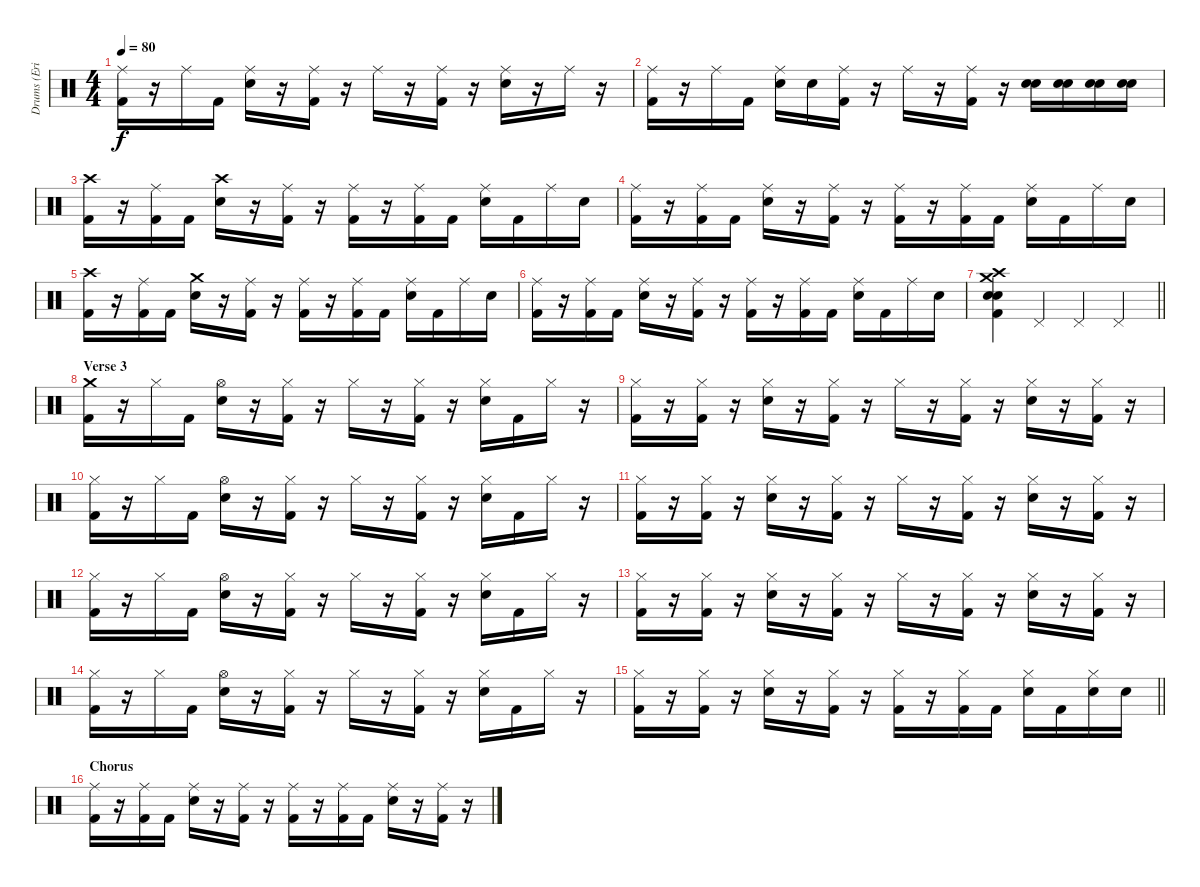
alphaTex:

\track ("Drums (Eric Kretz)" "Drums (Eri") {instrument percussion}
\staff {score}
\articulation defaults
\ts (4 4)
\tempo 80
\clef neutral
\ks c
("Ride (middle)" "Kick (hit) 2").16{dy f} r.16 "Ride (middle)".16 "Kick (hit) 2".16 ("Ride (middle)" "Electric Snare (hit)").16 r.16 ("Ride (middle)" "Kick (hit) 2").16 r.16 "Ride (middle)".16 r.16 ("Ride (middle)" "Kick (hit) 2").16 r.16 ("Ride (middle)" "Electric Snare (hit)").16 r.16 "Ride (middle)".16 r.16 |
("Ride (middle)" "Kick (hit) 2").16 r.16 "Ride (middle)".16 "Kick (hit) 2".16 ("Ride (middle)" "Electric Snare (hit)").16 "Electric Snare (hit)".16 ("Ride (middle)" "Kick (hit) 2").16 r.16 "Ride (middle)".16 r.16 ("Ride (middle)" "Kick (hit) 2").16 r.16 ("Snare (hit) 2" "Electric Snare (hit)").16 ("Snare (hit) 2" "Electric Snare (hit)").16 ("Snare (hit) 2" "Electric Snare (hit)").16 ("Snare (hit) 2" "Electric Snare (hit)").16 |
("Crash high (hit)" "Kick (hit) 2").16 r.16 ("Ride (middle)" "Kick (hit) 2").16 "Kick (hit) 2".16 ("Crash high (hit)" "Electric Snare (hit)").16 r.16 ("Ride (middle)" "Kick (hit) 2").16 r.16 ("Ride (middle)" "Kick (hit) 2").16 r.16 ("Ride (middle)" "Kick (hit) 2").16 "Kick (hit) 2".16 ("Ride (middle)" "Electric Snare (hit)").16 "Kick (hit) 2".16 "Ride (middle)".16 "Electric Snare (hit)".16 |
("Ride (middle)" "Kick (hit) 2").16 r.16 ("Ride (middle)" "Kick (hit) 2").16 "Kick (hit) 2".16 ("Ride (middle)" "Electric Snare (hit)").16 r.16 ("Ride (middle)" "Kick (hit) 2").16 r.16 ("Ride (middle)" "Kick (hit) 2").16 r.16 ("Ride (middle)" "Kick (hit) 2").16 "Kick (hit) 2".16 ("Ride (middle)" "Electric Snare (hit)").16 "Kick (hit) 2".16 "Ride (middle)".16 "Electric Snare (hit)".16 |
("Crash high (hit)" "Kick (hit) 2").16 r.16 ("Ride (middle)" "Kick (hit) 2").16 "Kick (hit) 2".16 ("Crash medium (hit)" "Electric Snare (hit)").16 r.16 ("Ride (middle)" "Kick (hit) 2").16 r.16 ("Ride (middle)" "Kick (hit) 2").16 r.16 ("Ride (middle)" "Kick (hit) 2").16 "Kick (hit) 2".16 ("Ride (middle)" "Electric Snare (hit)").16 "Kick (hit) 2".16 "Ride (middle)".16 "Electric Snare (hit)".16 |
("Ride (middle)" "Kick (hit) 2").16 r.16 ("Ride (middle)" "Kick (hit) 2").16 "Kick (hit) 2".16 ("Ride (middle)" "Electric Snare (hit)").16 r.16 ("Ride (middle)" "Kick (hit) 2").16 r.16 ("Ride (middle)" "Kick (hit) 2").16 r.16 ("Ride (middle)" "Kick (hit) 2").16 "Kick (hit) 2".16 ("Ride (middle)" "Electric Snare (hit)").16 "Kick (hit) 2".16 "Ride (middle)".16 "Electric Snare (hit)".16 |
\barLineRight lightlight
("Crash high (hit)" "Crash medium (hit)" "Snare (hit) 2" "Electric Snare (hit)" "Kick (hit) 2").4 "Pedal Hi-Hat (hit)".4 "Pedal Hi-Hat (hit)".4 "Pedal Hi-Hat (hit)".4 |
\section ("" "Verse 3")
("Crash medium (hit)" "Kick (hit) 2").16 r.16 "Hi-Hat (closed)".16 "Kick (hit) 2".16 ("Hi-Hat (open)" "Electric Snare (hit)").16 r.16 ("Hi-Hat (closed)" "Kick (hit) 2").16 r.16 "Hi-Hat (closed)".16 r.16 ("Hi-Hat (closed)" "Kick (hit) 2").16 r.16 ("Hi-Hat (closed)" "Electric Snare (hit)").16 "Kick (hit) 2".16 "Hi-Hat (closed)".16 r.16 |
("Hi-Hat (closed)" "Kick (hit) 2").16 r.16 ("Hi-Hat (closed)" "Kick (hit) 2").16 r.16 ("Hi-Hat (closed)" "Electric Snare (hit)").16 r.16 ("Hi-Hat (closed)" "Kick (hit) 2").16 r.16 "Hi-Hat (closed)".16 r.16 ("Hi-Hat (closed)" "Kick (hit) 2").16 r.16 ("Hi-Hat (closed)" "Electric Snare (hit)").16 r.16 ("Hi-Hat (closed)" "Kick (hit) 2").16 r.16 |
("Hi-Hat (closed)" "Kick (hit) 2").16 r.16 "Hi-Hat (closed)".16 "Kick (hit) 2".16 ("Hi-Hat (open)" "Electric Snare (hit)").16 r.16 ("Hi-Hat (closed)" "Kick (hit) 2").16 r.16 "Hi-Hat (closed)".16 r.16 ("Hi-Hat (closed)" "Kick (hit) 2").16 r.16 ("Hi-Hat (closed)" "Electric Snare (hit)").16 "Kick (hit) 2".16 "Hi-Hat (closed)".16 r.16 |
("Hi-Hat (closed)" "Kick (hit) 2").16 r.16 ("Hi-Hat (closed)" "Kick (hit) 2").16 r.16 ("Hi-Hat (closed)" "Electric Snare (hit)").16 r.16 ("Hi-Hat (closed)" "Kick (hit) 2").16 r.16 "Hi-Hat (closed)".16 r.16 ("Hi-Hat (closed)" "Kick (hit) 2").16 r.16 ("Hi-Hat (closed)" "Electric Snare (hit)").16 r.16 ("Hi-Hat (closed)" "Kick (hit) 2").16 r.16 |
("Hi-Hat (closed)" "Kick (hit) 2").16 r.16 "Hi-Hat (closed)".16 "Kick (hit) 2".16 ("Hi-Hat (open)" "Electric Snare (hit)").16 r.16 ("Hi-Hat (closed)" "Kick (hit) 2").16 r.16 "Hi-Hat (closed)".16 r.16 ("Hi-Hat (closed)" "Kick (hit) 2").16 r.16 ("Hi-Hat (closed)" "Electric Snare (hit)").16 "Kick (hit) 2".16 "Hi-Hat (closed)".16 r.16 |
("Hi-Hat (closed)" "Kick (hit) 2").16 r.16 ("Hi-Hat (closed)" "Kick (hit) 2").16 r.16 ("Hi-Hat (closed)" "Electric Snare (hit)").16 r.16 ("Hi-Hat (closed)" "Kick (hit) 2").16 r.16 "Hi-Hat (closed)".16 r.16 ("Hi-Hat (closed)" "Kick (hit) 2").16 r.16 ("Hi-Hat (closed)" "Electric Snare (hit)").16 r.16 ("Hi-Hat (closed)" "Kick (hit) 2").16 r.16 |
("Hi-Hat (closed)" "Kick (hit) 2").16 r.16 "Hi-Hat (closed)".16 "Kick (hit) 2".16 ("Hi-Hat (open)" "Electric Snare (hit)").16 r.16 ("Hi-Hat (closed)" "Kick (hit) 2").16 r.16 "Hi-Hat (closed)".16 r.16 ("Hi-Hat (closed)" "Kick (hit) 2").16 r.16 ("Hi-Hat (closed)" "Electric Snare (hit)").16 "Kick (hit) 2".16 "Hi-Hat (closed)".16 r.16 |
\barLineRight lightlight
("Hi-Hat (closed)" "Kick (hit) 2").16 r.16 ("Hi-Hat (closed)" "Kick (hit) 2").16 r.16 ("Hi-Hat (closed)" "Electric Snare (hit)").16 r.16 ("Hi-Hat (closed)" "Kick (hit) 2").16 r.16 ("Hi-Hat (closed)" "Kick (hit) 2").16 r.16 ("Hi-Hat (closed)" "Kick (hit) 2").16 "Kick (hit) 2".16 ("Hi-Hat (closed)" "Electric Snare (hit)").16 "Kick (hit) 2".16 ("Hi-Hat (closed)" "Electric Snare (hit)").16 "Electric Snare (hit)".16 |
\section ("" "Chorus")
("Ride (middle)" "Kick (hit) 2").16 r.16 ("Ride (middle)" "Kick (hit) 2").16 "Kick (hit) 2".16 ("Ride (middle)" "Electric Snare (hit)").16 r.16 ("Ride (middle)" "Kick (hit) 2").16 r.16 ("Ride (middle)" "Kick (hit) 2").16 r.16 ("Ride (middle)" "Kick (hit) 2").16 "Kick (hit) 2".16 ("Ride (middle)" "Electric Snare (hit)").16 r.16 ("Ride (middle)" "Kick (hit) 2").16 r.16
